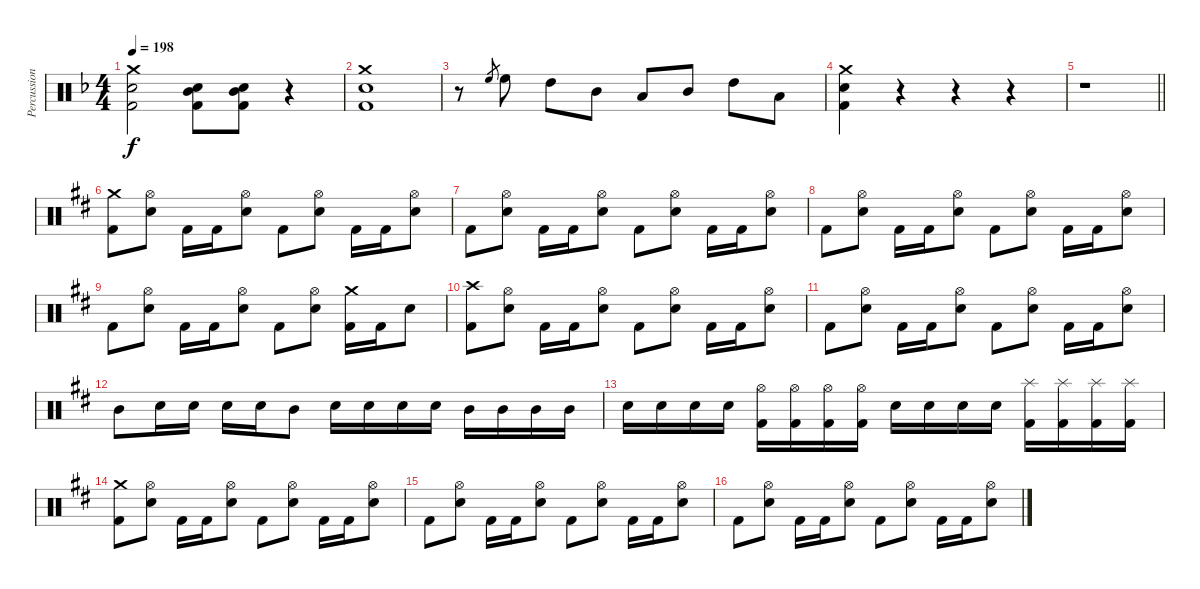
\track ("Percussion" "Percussion") {instrument percussion}
\staff {score}
\articulation defaults
\ts (4 4)
\tempo 198
\clef neutral
\ks dminor
("Crash medium (hit)" "Snare (hit) 2" "Kick (hit) 2").2{dy f} ("Snare (hit) 2" "Mid Tom (hit)" "Kick (hit) 2").8 ("Snare (hit) 2" "Mid Tom (hit)" "Kick (hit) 2").8 r.4 |
("Crash medium (hit)" "Snare (hit) 2" "Kick (hit) 2").1 |
r.8 "High Floor Tom (hit)".8{gr} "High Floor Tom (hit)".8 "High Tom (hit)".8 "Mid Tom (hit)".8 "Low Tom (hit)".8 "Mid Tom (hit)".8 "High Tom (hit)".8 "Low Tom (hit)".8 |
("Crash medium (hit)" "Snare (hit) 2" "Kick (hit) 2").4 r.4 r.4 r.4 |
\barLineRight lightlight
r.1 |
\ks bminor
("Crash medium (hit)" "Kick (hit) 2").8 ("Hi-Hat (open)" "Snare (hit) 2").8 "Kick (hit) 2".16 "Kick (hit) 2".16 ("Hi-Hat (open)" "Snare (hit) 2").8 "Kick (hit) 2".8 ("Hi-Hat (open)" "Snare (hit) 2").8 "Kick (hit) 2".16 "Kick (hit) 2".16 ("Hi-Hat (open)" "Snare (hit) 2").8 |
"Kick (hit) 2".8 ("Hi-Hat (open)" "Snare (hit) 2").8 "Kick (hit) 2".16 "Kick (hit) 2".16 ("Hi-Hat (open)" "Snare (hit) 2").8 "Kick (hit) 2".8 ("Hi-Hat (open)" "Snare (hit) 2").8 "Kick (hit) 2".16 "Kick (hit) 2".16 ("Hi-Hat (open)" "Snare (hit) 2").8 |
"Kick (hit) 2".8 ("Hi-Hat (open)" "Snare (hit) 2").8 "Kick (hit) 2".16 "Kick (hit) 2".16 ("Hi-Hat (open)" "Snare (hit) 2").8 "Kick (hit) 2".8 ("Hi-Hat (open)" "Snare (hit) 2").8 "Kick (hit) 2".16 "Kick (hit) 2".16 ("Hi-Hat (open)" "Snare (hit) 2").8 |
"Kick (hit) 2".8 ("Hi-Hat (open)" "Snare (hit) 2").8 "Kick (hit) 2".16 "Kick (hit) 2".16 ("Hi-Hat (open)" "Snare (hit) 2").8 "Kick (hit) 2".8 ("Hi-Hat (open)" "Snare (hit) 2").8 ("Crash medium (hit)" "Kick (hit) 2").16 "Kick (hit) 2".16 "Snare (hit) 2".8 |
("Crash high (hit)" "Kick (hit) 2").8 ("Hi-Hat (open)" "Snare (hit) 2").8 "Kick (hit) 2".16 "Kick (hit) 2".16 ("Hi-Hat (open)" "Snare (hit) 2").8 "Kick (hit) 2".8 ("Hi-Hat (open)" "Snare (hit) 2").8 "Kick (hit) 2".16 "Kick (hit) 2".16 ("Hi-Hat (open)" "Snare (hit) 2").8 |
"Kick (hit) 2".8 ("Hi-Hat (open)" "Snare (hit) 2").8 "Kick (hit) 2".16 "Kick (hit) 2".16 ("Hi-Hat (open)" "Snare (hit) 2").8 "Kick (hit) 2".8 ("Hi-Hat (open)" "Snare (hit) 2").8 "Kick (hit) 2".16 "Kick (hit) 2".16 ("Hi-Hat (open)" "Snare (hit) 2").8 |
"Mid Tom (hit)".8 "Snare (hit) 2".16 "Snare (hit) 2".16 "Snare (hit) 2".16 "Snare (hit) 2".16 "Mid Tom (hit)".8 "Snare (hit) 2".16 "Snare (hit) 2".16 "Snare (hit) 2".16 "Snare (hit) 2".16 "Mid Tom (hit)".16 "Mid Tom (hit)".16 "Mid Tom (hit)".16 "Mid Tom (hit)".16 |
"Snare (hit) 2".16 "Snare (hit) 2".16 "Snare (hit) 2".16 "Snare (hit) 2".16 ("Hi-Hat (open)" "Kick (hit) 2").16 ("Hi-Hat (open)" "Kick (hit) 2").16 ("Hi-Hat (open)" "Kick (hit) 2").16 ("Hi-Hat (open)" "Kick (hit) 2").16 "Snare (hit) 2".16 "Snare (hit) 2".16 "Snare (hit) 2".16 "Snare (hit) 2".16 ("Splash (hit)" "Kick (hit) 2").16 ("Splash (hit)" "Kick (hit) 2").16 ("Splash (hit)" "Kick (hit) 2").16 ("Splash (hit)" "Kick (hit) 2").16 |
("Crash medium (hit)" "Kick (hit) 2").8 ("Hi-Hat (open)" "Snare (hit) 2").8 "Kick (hit) 2".16 "Kick (hit) 2".16 ("Hi-Hat (open)" "Snare (hit) 2").8 "Kick (hit) 2".8 ("Hi-Hat (open)" "Snare (hit) 2").8 "Kick (hit) 2".16 "Kick (hit) 2".16 ("Hi-Hat (open)" "Snare (hit) 2").8 |
"Kick (hit) 2".8 ("Hi-Hat (open)" "Snare (hit) 2").8 "Kick (hit) 2".16 "Kick (hit) 2".16 ("Hi-Hat (open)" "Snare (hit) 2").8 "Kick (hit) 2".8 ("Hi-Hat (open)" "Snare (hit) 2").8 "Kick (hit) 2".16 "Kick (hit) 2".16 ("Hi-Hat (open)" "Snare (hit) 2").8 |
"Kick (hit) 2".8 ("Hi-Hat (open)" "Snare (hit) 2").8 "Kick (hit) 2".16 "Kick (hit) 2".16 ("Hi-Hat (open)" "Snare (hit) 2").8 "Kick (hit) 2".8 ("Hi-Hat (open)" "Snare (hit) 2").8 "Kick (hit) 2".16 "Kick (hit) 2".16 ("Hi-Hat (open)" "Snare (hit) 2").8
